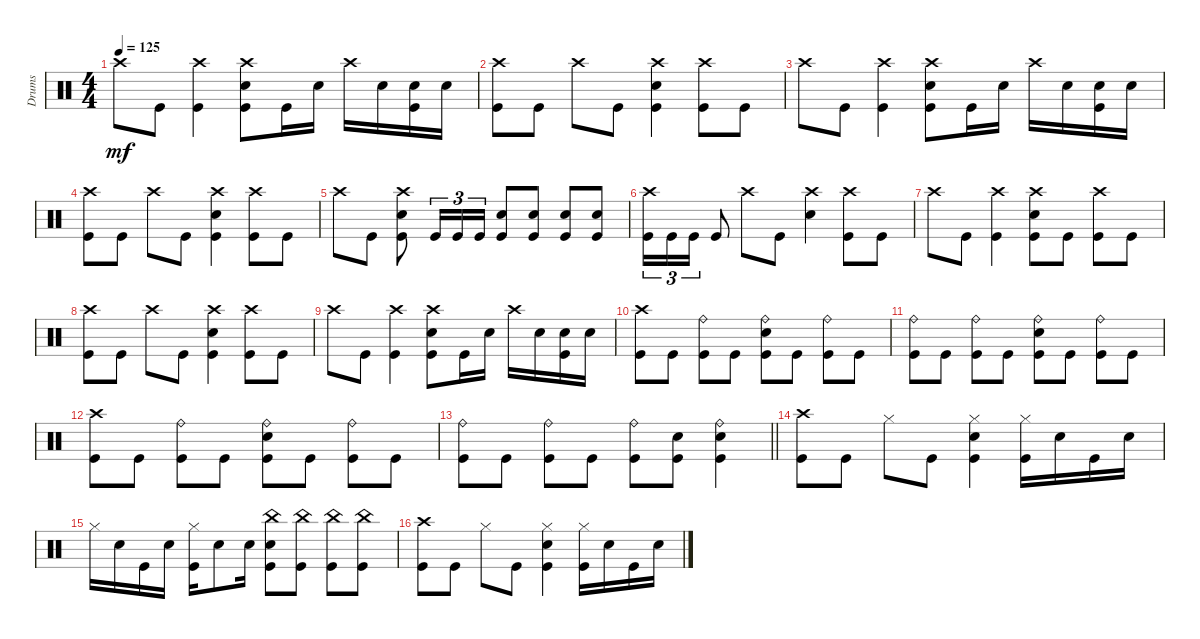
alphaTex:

\track ("Drums" "Drums") {instrument percussion}
\staff {score}
\articulation defaults
\ts (4 4)
\tempo 125
\clef neutral
\ks c "Crash high (hit)".8{dy mf} "Kick (hit)".8
("Crash high (hit)" "Kick (hit)").4 ("Snare (hit) 2" "Crash high (hit)" "Kick (hit)").8 "Kick (hit)".16 "Snare (hit) 2".16 "Crash high (hit)".16 "Snare (hit) 2".16 ("Snare (hit) 2" "Kick (hit)").16 "Snare (hit) 2".16 |
("Kick (hit)" "Crash high (hit)").8 "Kick (hit)".8 "Crash high (hit)".8 "Kick (hit)".8 ("Kick (hit)" "Snare (hit) 2" "Crash high (hit)").4 ("Kick (hit)" "Crash high (hit)").8 "Kick (hit)".8 |
"Crash high (hit)".8 "Kick (hit)".8 ("Kick (hit)" "Crash high (hit)").4 ("Kick (hit)" "Snare (hit) 2" "Crash high (hit)").8 "Kick (hit)".16 "Snare (hit) 2".16 "Crash high (hit)".16 "Snare (hit) 2".16 ("Snare (hit) 2" "Kick (hit)").16 "Snare (hit) 2".16 |
("Kick (hit)" "Crash high (hit)").8 "Kick (hit)".8 "Crash high (hit)".8 "Kick (hit)".8 ("Kick (hit)" "Snare (hit) 2" "Crash high (hit)").4 ("Kick (hit)" "Crash high (hit)").8 "Kick (hit)".8 |
"Crash high (hit)".8 "Kick (hit)".8 ("Kick (hit)" "Snare (hit) 2" "Crash high (hit)").8 "Kick (hit)".16{tu (3 2)} "Kick (hit)".16{tu (3 2)} "Kick (hit)".16{tu (3 2)} ("Snare (hit) 2" "Kick (hit)").8 ("Snare (hit) 2" "Kick (hit)").8 ("Snare (hit) 2" "Kick (hit)").8 ("Snare (hit) 2" "Kick (hit)").8 |
("Kick (hit)" "Crash high (hit)").16{tu (3 2)} "Kick (hit)".16{tu (3 2)} "Kick (hit)".16{tu (3 2)} "Kick (hit)".8 "Crash high (hit)".8 "Kick (hit)".8 ("Snare (hit) 2" "Crash high (hit)").4 ("Kick (hit)" "Crash high (hit)").8 "Kick (hit)".8 |
"Crash high (hit)".8 "Kick (hit)".8 ("Crash high (hit)" "Kick (hit)").4 ("Snare (hit) 2" "Crash high (hit)" "Kick (hit)").8 "Kick (hit)".8 ("Kick (hit)" "Crash high (hit)").8 "Kick (hit)".8 |
("Kick (hit)" "Crash high (hit)").8 "Kick (hit)".8 "Crash high (hit)".8 "Kick (hit)".8 ("Kick (hit)" "Snare (hit) 2" "Crash high (hit)").4 ("Kick (hit)" "Crash high (hit)").8 "Kick (hit)".8 |
"Crash high (hit)".8 "Kick (hit)".8 ("Kick (hit)" "Crash high (hit)").4 ("Kick (hit)" "Snare (hit) 2" "Crash high (hit)").8 "Kick (hit)".16 "Snare (hit) 2".16 "Crash high (hit)".16 "Snare (hit) 2".16 ("Snare (hit) 2" "Kick (hit)").16 "Snare (hit) 2".16 |
("Crash high (hit)" "Kick (hit)").8 "Kick (hit)".8 ("Ride (bell)" "Kick (hit)").8 "Kick (hit)".8 ("Snare (hit) 2" "Ride (bell)" "Kick (hit)").8 "Kick (hit)".8 ("Ride (bell)" "Kick (hit)").8 "Kick (hit)".8 |
("Kick (hit)" "Ride (bell)").8 "Kick (hit)".8 ("Kick (hit)" "Ride (bell)").8 "Kick (hit)".8 ("Kick (hit)" "Snare (hit) 2" "Ride (bell)").8 "Kick (hit)".8 ("Kick (hit)" "Ride (bell)").8 "Kick (hit)".8 |
("Kick (hit)" "Crash high (hit)").8 "Kick (hit)".8 ("Kick (hit)" "Ride (bell)").8 "Kick (hit)".8 ("Kick (hit)" "Snare (hit) 2" "Ride (bell)").8 "Kick (hit)".8 ("Kick (hit)" "Ride (bell)").8 "Kick (hit)".8 |
\barLineRight lightlight
("Ride (bell)" "Kick (hit)").8 "Kick (hit)".8 ("Ride (bell)" "Kick (hit)").8 "Kick (hit)".8 ("Ride (bell)" "Kick (hit)").8 ("Snare (hit) 2" "Kick (hit)").8 ("Snare (hit) 2" "Ride (bell)" "Kick (hit)").4 |
("Crash high (hit)" "Kick (hit)").8{volume 6} "Kick (hit)".8 "Hi-Hat (closed)".8 "Kick (hit)".8 ("Snare (hit) 2" "Hi-Hat (closed)" "Kick (hit)").4 ("Hi-Hat (closed)" "Kick (hit)").16 "Snare (hit) 2".16 "Kick (hit)".16 "Snare (hit) 2".16 |
"Hi-Hat (closed)".16 "Snare (hit) 2".16 "Kick (hit)".16 "Snare (hit) 2".16 ("Hi-Hat (closed)" "Kick (hit)").16 "Snare (hit) 2".8 "Snare (hit) 2".16 ("Kick (hit)" "Snare (hit) 2" "China (hit)").8 ("Kick (hit)" "China (hit)").8 ("Kick (hit)" "China (hit)").8 ("Kick (hit)" "China (hit)").8 |
("Kick (hit)" "Crash high (hit)").8 "Kick (hit)".8 "Hi-Hat (closed)".8 "Kick (hit)".8 ("Kick (hit)" "Snare (hit) 2" "Hi-Hat (closed)").4 ("Kick (hit)" "Hi-Hat (closed)").16 "Snare (hit) 2".16 "Kick (hit)".16 "Snare (hit) 2".16
